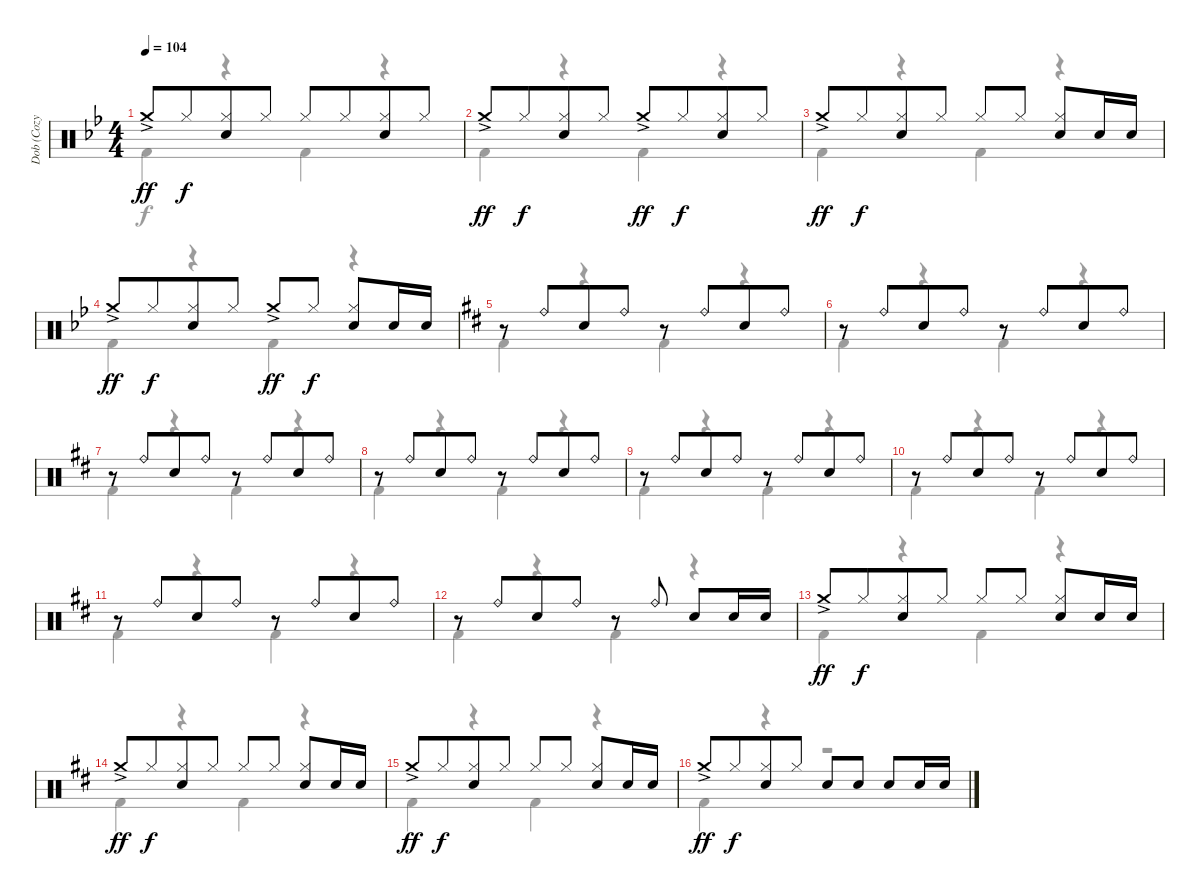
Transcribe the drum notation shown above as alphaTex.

\track ("Dob (Cozy Powell)" "Dob (Cozy ") {instrument percussion}
\staff {score}
\articulation defaults
\voice
\ts (4 4)
\tempo 104
\clef neutral
\ks bb "Crash medium (hit)"{ac}.8{dy ff} "Hi-Hat (closed)".8{dy f beam merge}
("Hi-Hat (closed)" "Electric Snare (hit)").8 "Hi-Hat (closed)".8 "Hi-Hat (closed)".8 "Hi-Hat (closed)".8{beam merge} ("Hi-Hat (closed)" "Electric Snare (hit)").8 "Hi-Hat (closed)".8 |
"Crash medium (hit)"{ac}.8{dy ff} "Hi-Hat (closed)".8{dy f beam merge} ("Hi-Hat (closed)" "Electric Snare (hit)").8 "Hi-Hat (closed)".8 "Crash medium (hit)"{ac}.8{dy ff} "Hi-Hat (closed)".8{dy f beam merge} ("Hi-Hat (closed)" "Electric Snare (hit)").8 "Hi-Hat (closed)".8 |
"Crash medium (hit)"{ac}.8{dy ff} "Hi-Hat (closed)".8{dy f beam merge} ("Hi-Hat (closed)" "Electric Snare (hit)").8 "Hi-Hat (closed)".8 "Hi-Hat (closed)".8 "Hi-Hat (closed)".8 ("Hi-Hat (closed)" "Electric Snare (hit)").8 "Electric Snare (hit)".16 "Electric Snare (hit)".16 |
"Crash medium (hit)"{ac}.8{dy ff} "Hi-Hat (closed)".8{dy f beam merge} ("Hi-Hat (closed)" "Electric Snare (hit)").8 "Hi-Hat (closed)".8 "Crash medium (hit)"{ac}.8{dy ff} "Hi-Hat (closed)".8{dy f} ("Hi-Hat (closed)" "Electric Snare (hit)").8 "Electric Snare (hit)".16 "Electric Snare (hit)".16 |
\ks d
r.8 "Ride (bell)".8{beam merge} "Electric Snare (hit)".8 "Ride (bell)".8 r.8 "Ride (bell)".8{beam merge} "Electric Snare (hit)".8{beam merge} "Ride (bell)".8 |
r.8 "Ride (bell)".8{beam merge} "Electric Snare (hit)".8 "Ride (bell)".8 r.8 "Ride (bell)".8{beam merge} "Electric Snare (hit)".8{beam merge} "Ride (bell)".8 |
r.8 "Ride (bell)".8{beam merge} "Electric Snare (hit)".8 "Ride (bell)".8 r.8 "Ride (bell)".8{beam merge} "Electric Snare (hit)".8{beam merge} "Ride (bell)".8 |
r.8 "Ride (bell)".8{beam merge} "Electric Snare (hit)".8 "Ride (bell)".8 r.8 "Ride (bell)".8{beam merge} "Electric Snare (hit)".8{beam merge} "Ride (bell)".8 |
r.8 "Ride (bell)".8{beam merge} "Electric Snare (hit)".8 "Ride (bell)".8 r.8 "Ride (bell)".8{beam merge} "Electric Snare (hit)".8{beam merge} "Ride (bell)".8 |
r.8 "Ride (bell)".8{beam merge} "Electric Snare (hit)".8 "Ride (bell)".8 r.8 "Ride (bell)".8{beam merge} "Electric Snare (hit)".8{beam merge} "Ride (bell)".8 |
r.8 "Ride (bell)".8{beam merge} "Electric Snare (hit)".8 "Ride (bell)".8 r.8 "Ride (bell)".8{beam merge} "Electric Snare (hit)".8{beam merge} "Ride (bell)".8 |
r.8 "Ride (bell)".8{beam merge} "Electric Snare (hit)".8 "Ride (bell)".8 r.8 "Ride (bell)".8{beam split} "Electric Snare (hit)".8{beam merge} "Electric Snare (hit)".16 "Electric Snare (hit)".16 |
"Crash medium (hit)"{ac}.8{dy ff} "Hi-Hat (closed)".8{dy f beam merge} ("Hi-Hat (closed)" "Electric Snare (hit)").8 "Hi-Hat (closed)".8 "Hi-Hat (closed)".8 "Hi-Hat (closed)".8 ("Hi-Hat (closed)" "Electric Snare (hit)").8 "Electric Snare (hit)".16 "Electric Snare (hit)".16 |
"Crash medium (hit)"{ac}.8{dy ff} "Hi-Hat (closed)".8{dy f beam merge} ("Hi-Hat (closed)" "Electric Snare (hit)").8 "Hi-Hat (closed)".8 "Hi-Hat (closed)".8 "Hi-Hat (closed)".8 ("Hi-Hat (closed)" "Electric Snare (hit)").8 "Electric Snare (hit)".16 "Electric Snare (hit)".16 |
"Crash medium (hit)"{ac}.8{dy ff} "Hi-Hat (closed)".8{dy f beam merge} ("Hi-Hat (closed)" "Electric Snare (hit)").8 "Hi-Hat (closed)".8 "Hi-Hat (closed)".8 "Hi-Hat (closed)".8 ("Hi-Hat (closed)" "Electric Snare (hit)").8 "Electric Snare (hit)".16 "Electric Snare (hit)".16 |
"Crash medium (hit)"{ac}.8{dy ff} "Hi-Hat (closed)".8{dy f beam merge} ("Hi-Hat (closed)" "Electric Snare (hit)").8 "Hi-Hat (closed)".8 "Electric Snare (hit)".8 "Electric Snare (hit)".8 "Electric Snare (hit)".8 "Electric Snare (hit)".16 "Electric Snare (hit)".16
\voice
\clef neutral
\ottava regular
\simile none
\ks bb "Kick (hit) 2".4{dy f}
r.4 "Kick (hit) 2".4 r.4 |
"Kick (hit) 2".4 r.4 "Kick (hit) 2".4 r.4 |
"Kick (hit) 2".4 r.4 "Kick (hit) 2".4 r.4 |
"Kick (hit) 2".4 r.4 "Kick (hit) 2".4 r.4 |
\ks d "Kick (hit) 2".4
r.4 "Kick (hit) 2".4 r.4 |
"Kick (hit) 2".4 r.4 "Kick (hit) 2".4 r.4 |
"Kick (hit) 2".4 r.4 "Kick (hit) 2".4 r.4 |
"Kick (hit) 2".4 r.4 "Kick (hit) 2".4 r.4 |
"Kick (hit) 2".4 r.4 "Kick (hit) 2".4 r.4 |
"Kick (hit) 2".4 r.4 "Kick (hit) 2".4 r.4 |
"Kick (hit) 2".4 r.4 "Kick (hit) 2".4 r.4 |
"Kick (hit) 2".4 r.4 "Kick (hit) 2".4 r.4 |
"Kick (hit) 2".4 r.4 "Kick (hit) 2".4 r.4 |
"Kick (hit) 2".4 r.4 "Kick (hit) 2".4 r.4 |
"Kick (hit) 2".4 r.4 "Kick (hit) 2".4 r.4 |
"Kick (hit) 2".4 r.4 r.2
